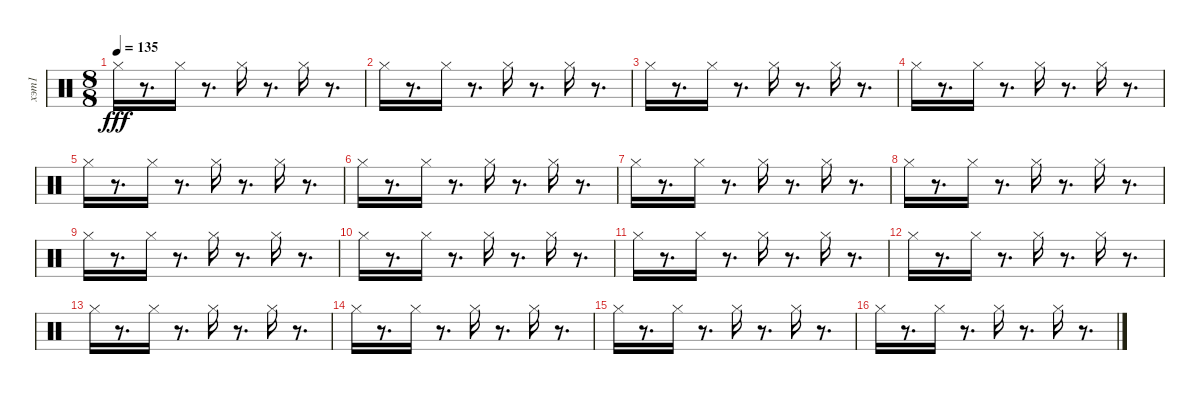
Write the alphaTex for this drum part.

\track ("хэт1" "хэт1") {instrument percussion}
\staff {score}
\articulation defaults
\ts (8 8)
\tempo 135
\clef neutral
\ks c "Hi-Hat (closed)".16{dy fff}
r.8{d} "Hi-Hat (closed)".16 r.8{d} "Hi-Hat (closed)".16 r.8{d} "Hi-Hat (closed)".16 r.8{d} |
"Hi-Hat (closed)".16 r.8{d} "Hi-Hat (closed)".16 r.8{d} "Hi-Hat (closed)".16 r.8{d} "Hi-Hat (closed)".16 r.8{d} |
"Hi-Hat (closed)".16 r.8{d} "Hi-Hat (closed)".16 r.8{d} "Hi-Hat (closed)".16 r.8{d} "Hi-Hat (closed)".16 r.8{d} |
"Hi-Hat (closed)".16 r.8{d} "Hi-Hat (closed)".16 r.8{d} "Hi-Hat (closed)".16 r.8{d} "Hi-Hat (closed)".16 r.8{d} |
"Hi-Hat (closed)".16 r.8{d} "Hi-Hat (closed)".16 r.8{d} "Hi-Hat (closed)".16 r.8{d} "Hi-Hat (closed)".16 r.8{d} |
"Hi-Hat (closed)".16 r.8{d} "Hi-Hat (closed)".16 r.8{d} "Hi-Hat (closed)".16 r.8{d} "Hi-Hat (closed)".16 r.8{d} |
"Hi-Hat (closed)".16 r.8{d} "Hi-Hat (closed)".16 r.8{d} "Hi-Hat (closed)".16 r.8{d} "Hi-Hat (closed)".16 r.8{d} |
"Hi-Hat (closed)".16 r.8{d} "Hi-Hat (closed)".16 r.8{d} "Hi-Hat (closed)".16 r.8{d} "Hi-Hat (closed)".16 r.8{d} |
"Hi-Hat (closed)".16 r.8{d} "Hi-Hat (closed)".16 r.8{d} "Hi-Hat (closed)".16 r.8{d} "Hi-Hat (closed)".16 r.8{d} |
"Hi-Hat (closed)".16 r.8{d} "Hi-Hat (closed)".16 r.8{d} "Hi-Hat (closed)".16 r.8{d} "Hi-Hat (closed)".16 r.8{d} |
"Hi-Hat (closed)".16 r.8{d} "Hi-Hat (closed)".16 r.8{d} "Hi-Hat (closed)".16 r.8{d} "Hi-Hat (closed)".16 r.8{d} |
"Hi-Hat (closed)".16 r.8{d} "Hi-Hat (closed)".16 r.8{d} "Hi-Hat (closed)".16 r.8{d} "Hi-Hat (closed)".16 r.8{d} |
"Hi-Hat (closed)".16 r.8{d} "Hi-Hat (closed)".16 r.8{d} "Hi-Hat (closed)".16 r.8{d} "Hi-Hat (closed)".16 r.8{d} |
"Hi-Hat (closed)".16 r.8{d} "Hi-Hat (closed)".16 r.8{d} "Hi-Hat (closed)".16 r.8{d} "Hi-Hat (closed)".16 r.8{d} |
"Hi-Hat (closed)".16 r.8{d} "Hi-Hat (closed)".16 r.8{d} "Hi-Hat (closed)".16 r.8{d} "Hi-Hat (closed)".16 r.8{d} |
"Hi-Hat (closed)".16 r.8{d} "Hi-Hat (closed)".16 r.8{d} "Hi-Hat (closed)".16 r.8{d} "Hi-Hat (closed)".16 r.8{d}
